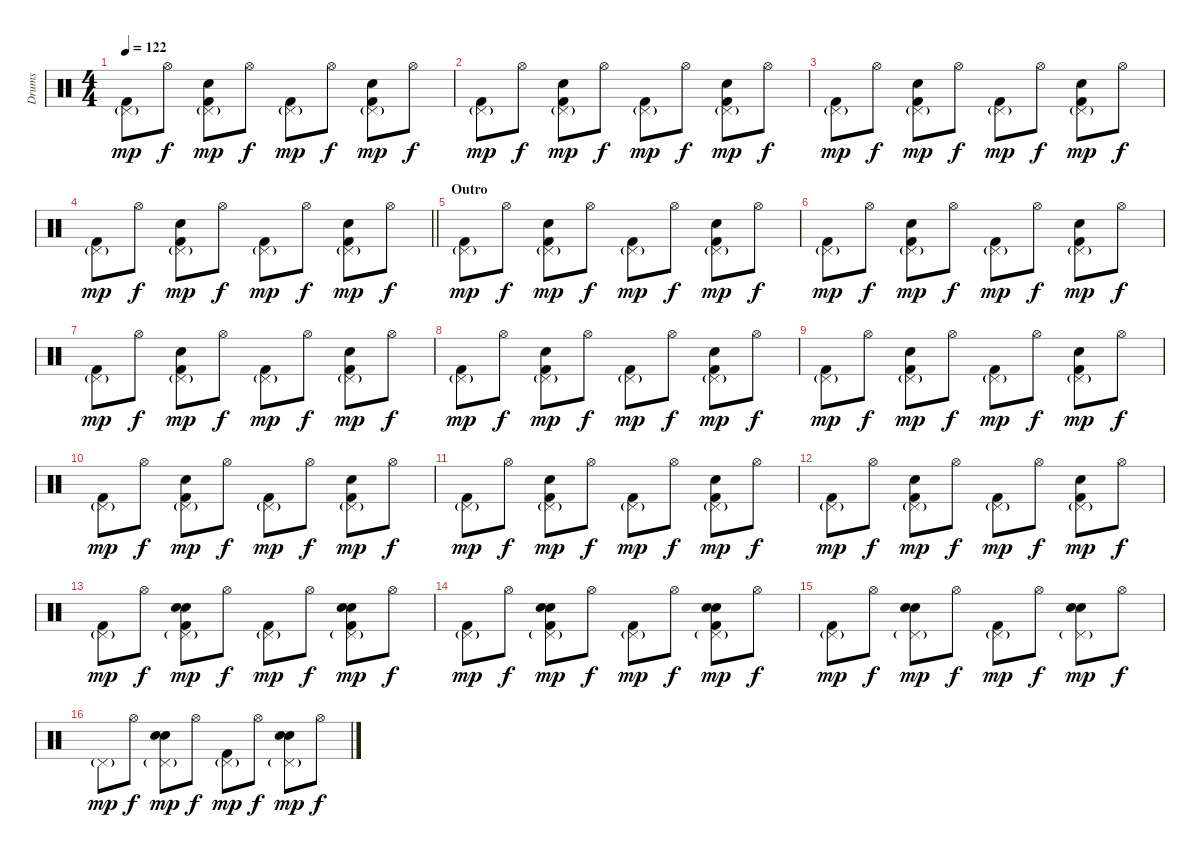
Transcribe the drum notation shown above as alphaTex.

\track ("Drums" "Drums") {instrument percussion}
\staff {score}
\articulation defaults
\ts (4 4)
\tempo 122
\clef neutral
\ks c
("Pedal Hi-Hat (hit)"{g} "Kick (hit) 2").8{dy mp} "Hi-Hat (open)".8{dy f} ("Pedal Hi-Hat (hit)"{g} "Snare (hit) 2" "Kick (hit) 2").8{dy mp} "Hi-Hat (open)".8{dy f} ("Pedal Hi-Hat (hit)"{g} "Kick (hit) 2").8{dy mp} "Hi-Hat (open)".8{dy f} ("Pedal Hi-Hat (hit)"{g} "Snare (hit) 2" "Kick (hit) 2").8{dy mp} "Hi-Hat (open)".8{dy f} |
("Pedal Hi-Hat (hit)"{g} "Kick (hit) 2").8{dy mp} "Hi-Hat (open)".8{dy f} ("Pedal Hi-Hat (hit)"{g} "Snare (hit) 2" "Kick (hit) 2").8{dy mp} "Hi-Hat (open)".8{dy f} ("Pedal Hi-Hat (hit)"{g} "Kick (hit) 2").8{dy mp} "Hi-Hat (open)".8{dy f} ("Pedal Hi-Hat (hit)"{g} "Snare (hit) 2" "Kick (hit) 2").8{dy mp} "Hi-Hat (open)".8{dy f} |
("Pedal Hi-Hat (hit)"{g} "Kick (hit) 2").8{dy mp} "Hi-Hat (open)".8{dy f} ("Pedal Hi-Hat (hit)"{g} "Snare (hit) 2" "Kick (hit) 2").8{dy mp} "Hi-Hat (open)".8{dy f} ("Pedal Hi-Hat (hit)"{g} "Kick (hit) 2").8{dy mp} "Hi-Hat (open)".8{dy f} ("Pedal Hi-Hat (hit)"{g} "Snare (hit) 2" "Kick (hit) 2").8{dy mp} "Hi-Hat (open)".8{dy f} |
\barLineRight lightlight
("Pedal Hi-Hat (hit)"{g} "Kick (hit) 2").8{dy mp} "Hi-Hat (open)".8{dy f} ("Pedal Hi-Hat (hit)"{g} "Snare (hit) 2" "Kick (hit) 2").8{dy mp} "Hi-Hat (open)".8{dy f} ("Pedal Hi-Hat (hit)"{g} "Kick (hit) 2").8{dy mp} "Hi-Hat (open)".8{dy f} ("Pedal Hi-Hat (hit)"{g} "Snare (hit) 2" "Kick (hit) 2").8{dy mp} "Hi-Hat (open)".8{dy f} |
\section ("" "Outro")
("Pedal Hi-Hat (hit)"{g} "Kick (hit) 2").8{dy mp} "Hi-Hat (open)".8{dy f} ("Pedal Hi-Hat (hit)"{g} "Snare (hit) 2" "Kick (hit) 2").8{dy mp} "Hi-Hat (open)".8{dy f} ("Pedal Hi-Hat (hit)"{g} "Kick (hit) 2").8{dy mp} "Hi-Hat (open)".8{dy f} ("Pedal Hi-Hat (hit)"{g} "Snare (hit) 2" "Kick (hit) 2").8{dy mp} "Hi-Hat (open)".8{dy f} |
("Pedal Hi-Hat (hit)"{g} "Kick (hit) 2").8{dy mp} "Hi-Hat (open)".8{dy f} ("Pedal Hi-Hat (hit)"{g} "Snare (hit) 2" "Kick (hit) 2").8{dy mp} "Hi-Hat (open)".8{dy f} ("Pedal Hi-Hat (hit)"{g} "Kick (hit) 2").8{dy mp} "Hi-Hat (open)".8{dy f} ("Pedal Hi-Hat (hit)"{g} "Snare (hit) 2" "Kick (hit) 2").8{dy mp} "Hi-Hat (open)".8{dy f} |
("Pedal Hi-Hat (hit)"{g} "Kick (hit) 2").8{dy mp} "Hi-Hat (open)".8{dy f} ("Pedal Hi-Hat (hit)"{g} "Snare (hit) 2" "Kick (hit) 2").8{dy mp} "Hi-Hat (open)".8{dy f} ("Pedal Hi-Hat (hit)"{g} "Kick (hit) 2").8{dy mp} "Hi-Hat (open)".8{dy f} ("Pedal Hi-Hat (hit)"{g} "Snare (hit) 2" "Kick (hit) 2").8{dy mp} "Hi-Hat (open)".8{dy f} |
("Pedal Hi-Hat (hit)"{g} "Kick (hit) 2").8{dy mp} "Hi-Hat (open)".8{dy f} ("Pedal Hi-Hat (hit)"{g} "Snare (hit) 2" "Kick (hit) 2").8{dy mp} "Hi-Hat (open)".8{dy f} ("Pedal Hi-Hat (hit)"{g} "Kick (hit) 2").8{dy mp} "Hi-Hat (open)".8{dy f} ("Pedal Hi-Hat (hit)"{g} "Snare (hit) 2" "Kick (hit) 2").8{dy mp} "Hi-Hat (open)".8{dy f} |
("Pedal Hi-Hat (hit)"{g} "Kick (hit) 2").8{dy mp} "Hi-Hat (open)".8{dy f} ("Pedal Hi-Hat (hit)"{g} "Snare (hit) 2" "Kick (hit) 2").8{dy mp} "Hi-Hat (open)".8{dy f} ("Pedal Hi-Hat (hit)"{g} "Kick (hit) 2").8{dy mp} "Hi-Hat (open)".8{dy f} ("Pedal Hi-Hat (hit)"{g} "Snare (hit) 2" "Kick (hit) 2").8{dy mp} "Hi-Hat (open)".8{dy f} |
("Pedal Hi-Hat (hit)"{g} "Kick (hit) 2").8{dy mp} "Hi-Hat (open)".8{dy f} ("Pedal Hi-Hat (hit)"{g} "Snare (hit) 2" "Kick (hit) 2").8{dy mp} "Hi-Hat (open)".8{dy f} ("Pedal Hi-Hat (hit)"{g} "Kick (hit) 2").8{dy mp} "Hi-Hat (open)".8{dy f} ("Pedal Hi-Hat (hit)"{g} "Snare (hit) 2" "Kick (hit) 2").8{dy mp} "Hi-Hat (open)".8{dy f} |
("Pedal Hi-Hat (hit)"{g} "Kick (hit) 2").8{dy mp} "Hi-Hat (open)".8{dy f} ("Pedal Hi-Hat (hit)"{g} "Snare (hit) 2" "Kick (hit) 2").8{dy mp} "Hi-Hat (open)".8{dy f} ("Pedal Hi-Hat (hit)"{g} "Kick (hit) 2").8{dy mp} "Hi-Hat (open)".8{dy f} ("Pedal Hi-Hat (hit)"{g} "Snare (hit) 2" "Kick (hit) 2").8{dy mp} "Hi-Hat (open)".8{dy f} |
("Pedal Hi-Hat (hit)"{g} "Kick (hit) 2").8{dy mp} "Hi-Hat (open)".8{dy f} ("Pedal Hi-Hat (hit)"{g} "Snare (hit) 2" "Kick (hit) 2").8{dy mp} "Hi-Hat (open)".8{dy f} ("Pedal Hi-Hat (hit)"{g} "Kick (hit) 2").8{dy mp} "Hi-Hat (open)".8{dy f} ("Pedal Hi-Hat (hit)"{g} "Snare (hit) 2" "Kick (hit) 2").8{dy mp} "Hi-Hat (open)".8{dy f} |
("Pedal Hi-Hat (hit)"{g} "Kick (hit) 2").8{dy mp} "Hi-Hat (open)".8{dy f} ("Hand Clap (hit)" "Pedal Hi-Hat (hit)"{g} "Snare (hit) 2" "Kick (hit) 2").8{dy mp} "Hi-Hat (open)".8{dy f} ("Pedal Hi-Hat (hit)"{g} "Kick (hit) 2").8{dy mp} "Hi-Hat (open)".8{dy f} ("Hand Clap (hit)" "Pedal Hi-Hat (hit)"{g} "Snare (hit) 2" "Kick (hit) 2").8{dy mp} "Hi-Hat (open)".8{dy f} |
("Pedal Hi-Hat (hit)"{g} "Kick (hit) 2").8{dy mp} "Hi-Hat (open)".8{dy f} ("Hand Clap (hit)" "Pedal Hi-Hat (hit)"{g} "Snare (hit) 2" "Kick (hit) 2").8{dy mp} "Hi-Hat (open)".8{dy f} ("Pedal Hi-Hat (hit)"{g} "Kick (hit) 2").8{dy mp} "Hi-Hat (open)".8{dy f} ("Hand Clap (hit)" "Pedal Hi-Hat (hit)"{g} "Snare (hit) 2" "Kick (hit) 2").8{dy mp} "Hi-Hat (open)".8{dy f} |
("Pedal Hi-Hat (hit)"{g} "Kick (hit) 2").8{dy mp} "Hi-Hat (open)".8{dy f} ("Hand Clap (hit)" "Pedal Hi-Hat (hit)"{g} "Snare (hit) 2").8{dy mp} "Hi-Hat (open)".8{dy f} ("Pedal Hi-Hat (hit)"{g} "Kick (hit) 2").8{dy mp} "Hi-Hat (open)".8{dy f} ("Hand Clap (hit)" "Pedal Hi-Hat (hit)"{g} "Snare (hit) 2").8{dy mp} "Hi-Hat (open)".8{dy f} |
"Pedal Hi-Hat (hit)"{g}.8{dy mp} "Hi-Hat (open)".8{dy f} ("Hand Clap (hit)" "Pedal Hi-Hat (hit)"{g} "Snare (hit) 2").8{dy mp} "Hi-Hat (open)".8{dy f} ("Pedal Hi-Hat (hit)"{g} "Kick (hit) 2").8{dy mp} "Hi-Hat (open)".8{dy f} ("Hand Clap (hit)" "Pedal Hi-Hat (hit)"{g} "Snare (hit) 2").8{dy mp} "Hi-Hat (open)".8{dy f}
